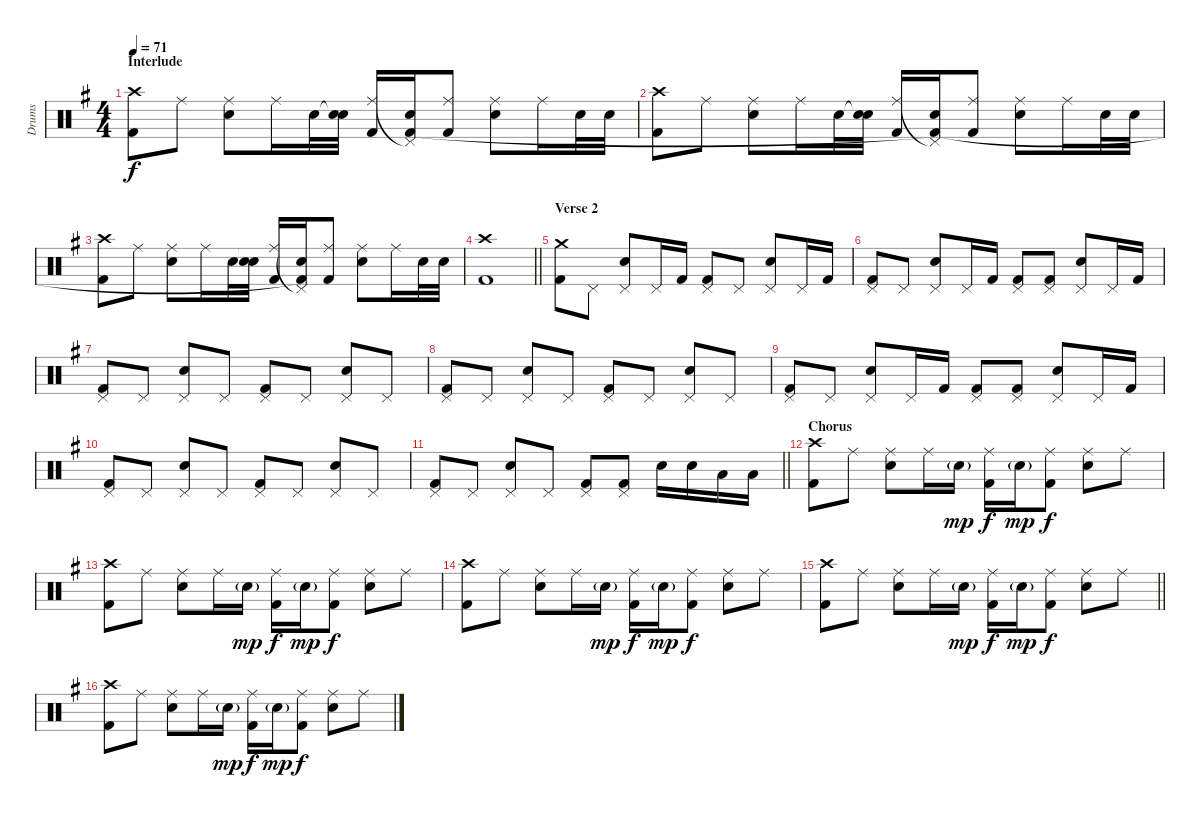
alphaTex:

\track ("Drums" "Drums") {instrument percussion}
\staff {score}
\articulation defaults
\ts (4 4)
\section ("" "Interlude")
\tempo 71
\clef neutral
\ks eminor
("Crash high (hit)" "Kick (hit) 2").8{dy f} "Ride (middle)".8 ("Ride (middle)" "Electric Snare (hit)").8 "Ride (middle)".16 "Electric Snare (hit)".32 ("Snare (hit)"{t} "Electric Snare (hit)").32 ("Ride (middle)" "Kick (hit) 2").16 ("Pedal Hi-Hat (hit)"{t} "Electric Snare (hit)" "Kick (hit) 2").16 ("Ride (middle)" "Kick (hit) 2").8 ("Ride (middle)" "Electric Snare (hit)").8 "Ride (middle)".16 "Electric Snare (hit)".32 "Electric Snare (hit)".32 |
("Crash high (hit)" "Kick (hit) 2").8 "Ride (middle)".8 ("Ride (middle)" "Electric Snare (hit)").8 "Ride (middle)".16 "Electric Snare (hit)".32 ("Snare (hit)"{t} "Electric Snare (hit)").32 ("Ride (middle)" "Kick (hit) 2").16 ("Pedal Hi-Hat (hit)"{t} "Electric Snare (hit)" "Kick (hit) 2"{t}).16 ("Ride (middle)" "Kick (hit) 2").8 ("Ride (middle)" "Electric Snare (hit)").8 "Ride (middle)".16 "Electric Snare (hit)".32 "Electric Snare (hit)".32 |
("Crash high (hit)" "Kick (hit) 2").8 "Ride (middle)".8 ("Ride (middle)" "Electric Snare (hit)").8 "Ride (middle)".16 "Electric Snare (hit)".32 ("Snare (hit)"{t} "Electric Snare (hit)").32 ("Ride (middle)" "Kick (hit) 2").16 ("Pedal Hi-Hat (hit)"{t} "Electric Snare (hit)" "Kick (hit) 2"{t}).16 ("Ride (middle)" "Kick (hit) 2").8 ("Ride (middle)" "Electric Snare (hit)").8 "Ride (middle)".16 "Electric Snare (hit)".32 "Electric Snare (hit)".32 |
\barLineRight lightlight
("Crash high (hit)" "Kick (hit) 2").1 |
\section ("" "Verse 2")
("Crash medium (hit)" "Kick (hit) 2").8 "Pedal Hi-Hat (hit)".8 ("Pedal Hi-Hat (hit)" "Electric Snare (hit)").8 "Pedal Hi-Hat (hit)".16 "Kick (hit) 2".16 ("Pedal Hi-Hat (hit)" "Kick (hit) 2").8 "Pedal Hi-Hat (hit)".8 ("Pedal Hi-Hat (hit)" "Electric Snare (hit)").8 "Pedal Hi-Hat (hit)".16 "Kick (hit) 2".16 |
("Pedal Hi-Hat (hit)" "Kick (hit) 2").8 "Pedal Hi-Hat (hit)".8 ("Pedal Hi-Hat (hit)" "Electric Snare (hit)").8 "Pedal Hi-Hat (hit)".16 "Kick (hit) 2".16 ("Pedal Hi-Hat (hit)" "Kick (hit) 2").8 ("Pedal Hi-Hat (hit)" "Kick (hit) 2").8 ("Pedal Hi-Hat (hit)" "Electric Snare (hit)").8 "Pedal Hi-Hat (hit)".16 "Kick (hit) 2".16 |
("Pedal Hi-Hat (hit)" "Kick (hit) 2").8 "Pedal Hi-Hat (hit)".8 ("Pedal Hi-Hat (hit)" "Electric Snare (hit)").8 "Pedal Hi-Hat (hit)".8 ("Pedal Hi-Hat (hit)" "Kick (hit) 2").8 "Pedal Hi-Hat (hit)".8 ("Pedal Hi-Hat (hit)" "Electric Snare (hit)").8 "Pedal Hi-Hat (hit)".8 |
("Pedal Hi-Hat (hit)" "Kick (hit) 2").8 "Pedal Hi-Hat (hit)".8 ("Pedal Hi-Hat (hit)" "Electric Snare (hit)").8 "Pedal Hi-Hat (hit)".8 ("Pedal Hi-Hat (hit)" "Kick (hit) 2").8 "Pedal Hi-Hat (hit)".8 ("Pedal Hi-Hat (hit)" "Electric Snare (hit)").8 "Pedal Hi-Hat (hit)".8 |
("Pedal Hi-Hat (hit)" "Kick (hit) 2").8 "Pedal Hi-Hat (hit)".8 ("Pedal Hi-Hat (hit)" "Electric Snare (hit)").8 "Pedal Hi-Hat (hit)".16 "Kick (hit) 2".16 ("Pedal Hi-Hat (hit)" "Kick (hit) 2").8 ("Pedal Hi-Hat (hit)" "Kick (hit) 2").8 ("Pedal Hi-Hat (hit)" "Electric Snare (hit)").8 "Pedal Hi-Hat (hit)".16 "Kick (hit) 2".16 |
("Pedal Hi-Hat (hit)" "Kick (hit) 2").8 "Pedal Hi-Hat (hit)".8 ("Pedal Hi-Hat (hit)" "Electric Snare (hit)").8 "Pedal Hi-Hat (hit)".8 ("Pedal Hi-Hat (hit)" "Kick (hit) 2").8 "Pedal Hi-Hat (hit)".8 ("Pedal Hi-Hat (hit)" "Electric Snare (hit)").8 "Pedal Hi-Hat (hit)".8 |
\barLineRight lightlight
("Pedal Hi-Hat (hit)" "Kick (hit) 2").8 "Pedal Hi-Hat (hit)".8 ("Pedal Hi-Hat (hit)" "Electric Snare (hit)").8 "Pedal Hi-Hat (hit)".8 ("Pedal Hi-Hat (hit)" "Kick (hit) 2").8 ("Pedal Hi-Hat (hit)" "Kick (hit) 2").8 "Electric Snare (hit)".16 "Electric Snare (hit)".16 "Low Tom (hit)".16 "Low Tom (hit)".16 |
\section ("" "Chorus")
("Crash high (hit)" "Kick (hit) 2").8 "Ride (middle)".8 ("Ride (middle)" "Electric Snare (hit)").8 "Ride (middle)".16 "Electric Snare (hit)"{g}.16{dy mp} ("Ride (middle)" "Kick (hit) 2").16{dy f} "Electric Snare (hit)"{g}.16{dy mp} ("Ride (middle)" "Kick (hit) 2").8{dy f} ("Ride (middle)" "Electric Snare (hit)").8 "Ride (middle)".8 |
("Crash high (hit)" "Kick (hit) 2").8 "Ride (middle)".8 ("Ride (middle)" "Electric Snare (hit)").8 "Ride (middle)".16 "Electric Snare (hit)"{g}.16{dy mp} ("Ride (middle)" "Kick (hit) 2").16{dy f} "Electric Snare (hit)"{g}.16{dy mp} ("Ride (middle)" "Kick (hit) 2").8{dy f} ("Ride (middle)" "Electric Snare (hit)").8 "Ride (middle)".8 |
("Crash high (hit)" "Kick (hit) 2").8 "Ride (middle)".8 ("Ride (middle)" "Electric Snare (hit)").8 "Ride (middle)".16 "Electric Snare (hit)"{g}.16{dy mp} ("Ride (middle)" "Kick (hit) 2").16{dy f} "Electric Snare (hit)"{g}.16{dy mp} ("Ride (middle)" "Kick (hit) 2").8{dy f} ("Ride (middle)" "Electric Snare (hit)").8 "Ride (middle)".8 |
\barLineRight lightlight
("Crash high (hit)" "Kick (hit) 2").8 "Ride (middle)".8 ("Ride (middle)" "Electric Snare (hit)").8 "Ride (middle)".16 "Electric Snare (hit)"{g}.16{dy mp} ("Ride (middle)" "Kick (hit) 2").16{dy f} "Electric Snare (hit)"{g}.16{dy mp} ("Ride (middle)" "Kick (hit) 2").8{dy f} ("Ride (middle)" "Electric Snare (hit)").8 "Ride (middle)".8 |
("Crash high (hit)" "Kick (hit) 2").8 "Ride (middle)".8 ("Ride (middle)" "Electric Snare (hit)").8 "Ride (middle)".16 "Electric Snare (hit)"{g}.16{dy mp} ("Ride (middle)" "Kick (hit) 2").16{dy f} "Electric Snare (hit)"{g}.16{dy mp} ("Ride (middle)" "Kick (hit) 2").8{dy f} ("Ride (middle)" "Electric Snare (hit)").8 "Ride (middle)".8
